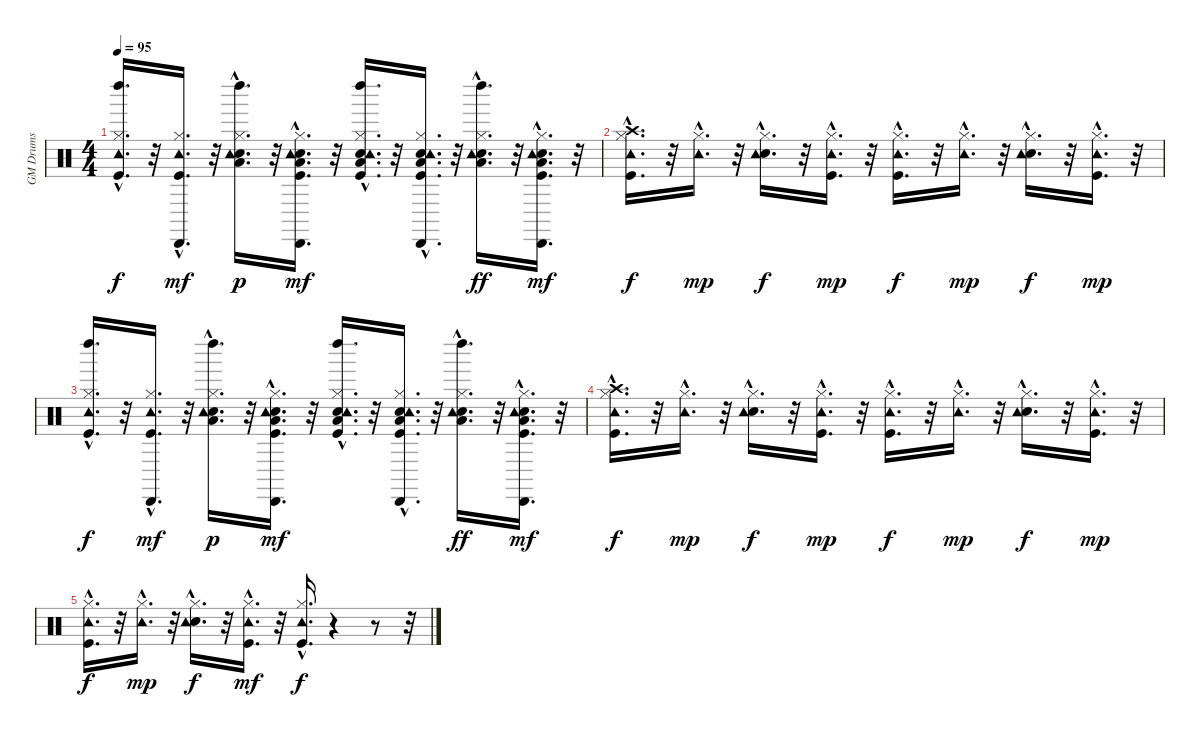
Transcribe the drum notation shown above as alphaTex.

\track ("GM Drums            " "GM Drums  ") {instrument percussion}
\staff {score}
\articulation defaults
\ts (4 4)
\tempo 95
\clef neutral
\ks c
("Kick (hit)" "Hi-Hat (closed)" "Left Maraca (hit)" "Tambourine (hit)"{hac}).16{d dy f} r.32 ("Kick (hit)" "Hi-Hat (closed)" "Cabasa (hit)" "Tambourine (hit)"{hac}).16{d dy mf} r.32 ("Snare (hit) 2" "Hi-Hat (closed)" "Low Floor Tom (hit)" "Left Maraca (hit)" "Tambourine (hit)"{hac}).16{d dy p} r.32 ("Kick (hit)" "Snare (hit) 2" "Hi-Hat (closed)" "Low Floor Tom (hit)" "Cabasa (hit)" "Tambourine (hit)"{hac}).16{d dy mf} r.32 ("Kick (hit)" "Snare (hit) 2" "Hi-Hat (closed)" "Low Floor Tom (hit)" "Left Maraca (hit)" "Tambourine (hit)"{hac}).16{d} r.32 ("Kick (hit)" "Snare (hit) 2" "Hi-Hat (closed)" "Low Floor Tom (hit)" "Cabasa (hit)" "Tambourine (hit)"{hac}).16{d} r.32 ("Snare (hit) 2" "Hi-Hat (closed)" "Low Floor Tom (hit)" "Left Maraca (hit)" "Tambourine (hit)"{hac}).16{d dy ff} r.32 ("Kick (hit)" "Snare (hit) 2" "Hi-Hat (closed)" "Low Floor Tom (hit)" "Cabasa (hit)" "Tambourine (hit)"{hac}).16{d dy mf} r.32 |
("Kick (hit)" "Hi-Hat (closed)" "Crash high (hit)" "Tambourine (hit)"{hac}).16{d dy f} r.32 ("Hi-Hat (closed)" "Tambourine (hit)"{hac}).16{d dy mp} r.32 ("Snare (hit) 2" "Hi-Hat (closed)" "Tambourine (hit)"{hac}).16{d dy f} r.32 ("Kick (hit)" "Hi-Hat (closed)" "Tambourine (hit)"{hac}).16{d dy mp} r.32 ("Kick (hit)" "Hi-Hat (closed)" "Tambourine (hit)"{hac}).16{d dy f} r.32 ("Hi-Hat (closed)" "Tambourine (hit)"{hac}).16{d dy mp} r.32 ("Snare (hit) 2" "Hi-Hat (closed)" "Tambourine (hit)"{hac}).16{d dy f} r.32 ("Kick (hit)" "Hi-Hat (closed)" "Tambourine (hit)"{hac}).16{d dy mp} r.32 |
("Kick (hit)" "Hi-Hat (closed)" "Left Maraca (hit)" "Tambourine (hit)"{hac}).16{d dy f} r.32 ("Kick (hit)" "Hi-Hat (closed)" "Cabasa (hit)" "Tambourine (hit)"{hac}).16{d dy mf} r.32 ("Snare (hit) 2" "Hi-Hat (closed)" "Low Floor Tom (hit)" "Left Maraca (hit)" "Tambourine (hit)"{hac}).16{d dy p} r.32 ("Kick (hit)" "Snare (hit) 2" "Hi-Hat (closed)" "Low Floor Tom (hit)" "Cabasa (hit)" "Tambourine (hit)"{hac}).16{d dy mf} r.32 ("Kick (hit)" "Snare (hit) 2" "Hi-Hat (closed)" "Low Floor Tom (hit)" "Left Maraca (hit)" "Tambourine (hit)"{hac}).16{d} r.32 ("Kick (hit)" "Snare (hit) 2" "Hi-Hat (closed)" "Low Floor Tom (hit)" "Cabasa (hit)" "Tambourine (hit)"{hac}).16{d} r.32 ("Snare (hit) 2" "Hi-Hat (closed)" "Low Floor Tom (hit)" "Left Maraca (hit)" "Tambourine (hit)"{hac}).16{d dy ff} r.32 ("Kick (hit)" "Snare (hit) 2" "Hi-Hat (closed)" "Low Floor Tom (hit)" "Cabasa (hit)" "Tambourine (hit)"{hac}).16{d dy mf} r.32 |
("Kick (hit)" "Hi-Hat (closed)" "Crash high (hit)" "Tambourine (hit)"{hac}).16{d dy f} r.32 ("Hi-Hat (closed)" "Tambourine (hit)"{hac}).16{d dy mp} r.32 ("Snare (hit) 2" "Hi-Hat (closed)" "Tambourine (hit)"{hac}).16{d dy f} r.32 ("Kick (hit)" "Hi-Hat (closed)" "Tambourine (hit)"{hac}).16{d dy mp} r.32 ("Kick (hit)" "Hi-Hat (closed)" "Tambourine (hit)"{hac}).16{d dy f} r.32 ("Hi-Hat (closed)" "Tambourine (hit)"{hac}).16{d dy mp} r.32 ("Snare (hit) 2" "Hi-Hat (closed)" "Tambourine (hit)"{hac}).16{d dy f} r.32 ("Kick (hit)" "Hi-Hat (closed)" "Tambourine (hit)"{hac}).16{d dy mp} r.32 |
("Kick (hit)" "Hi-Hat (closed)" "Tambourine (hit)"{hac}).16{d dy f} r.32 ("Hi-Hat (closed)" "Tambourine (hit)"{hac}).16{d dy mp} r.32 ("Snare (hit) 2" "Hi-Hat (closed)" "Tambourine (hit)"{hac}).16{d dy f} r.32 ("Kick (hit)" "Hi-Hat (closed)" "Tambourine (hit)"{hac}).16{d dy mf} r.32 ("Kick (hit)" "Hi-Hat (closed)" "Tambourine (hit)"{hac}).16{d dy f} r.4 r.8 r.32
